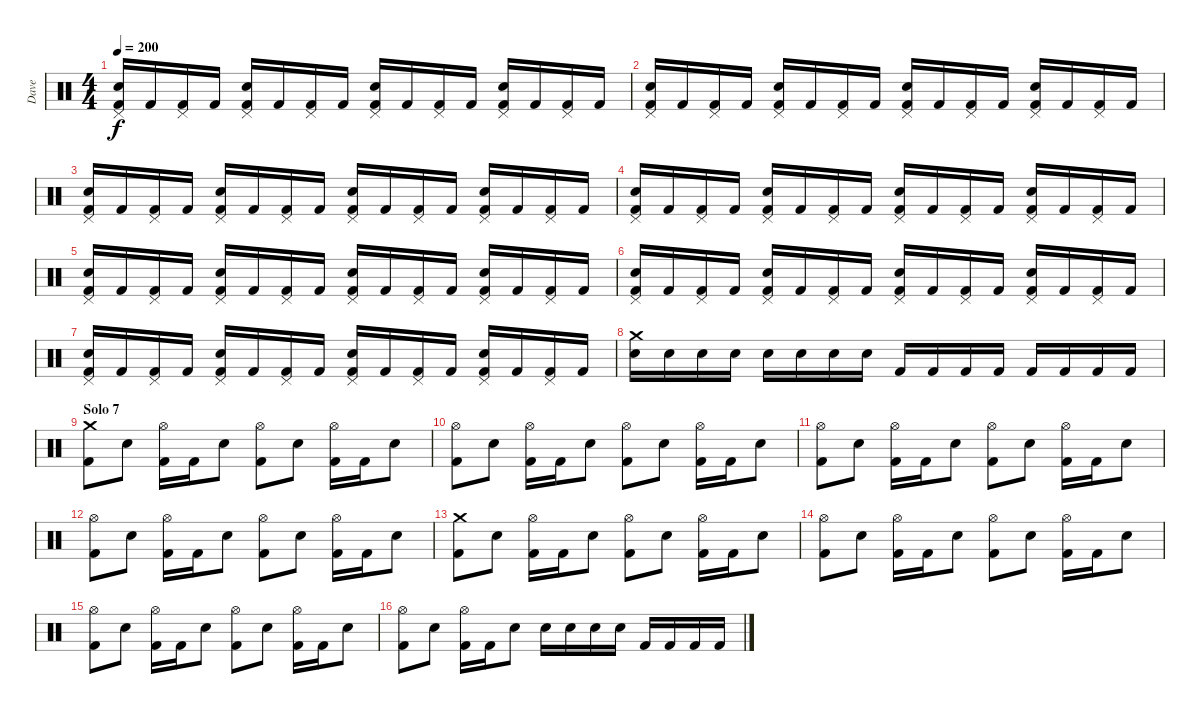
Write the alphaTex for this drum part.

\track ("Dave" "Dave") {instrument percussion}
\staff {score}
\articulation defaults
\ts (4 4)
\tempo 200
\clef neutral
\ks c
("Pedal Hi-Hat (hit)" "Snare (hit) 2" "Kick (hit) 2").16{dy f} "Kick (hit) 2".16 ("Pedal Hi-Hat (hit)" "Kick (hit) 2").16 "Kick (hit) 2".16 ("Pedal Hi-Hat (hit)" "Snare (hit) 2" "Kick (hit) 2").16 "Kick (hit) 2".16 ("Pedal Hi-Hat (hit)" "Kick (hit) 2").16 "Kick (hit) 2".16 ("Pedal Hi-Hat (hit)" "Snare (hit) 2" "Kick (hit) 2").16 "Kick (hit) 2".16 ("Pedal Hi-Hat (hit)" "Kick (hit) 2").16 "Kick (hit) 2".16 ("Pedal Hi-Hat (hit)" "Snare (hit) 2" "Kick (hit) 2").16 "Kick (hit) 2".16 ("Pedal Hi-Hat (hit)" "Kick (hit) 2").16 "Kick (hit) 2".16 |
("Pedal Hi-Hat (hit)" "Snare (hit) 2" "Kick (hit) 2").16 "Kick (hit) 2".16 ("Pedal Hi-Hat (hit)" "Kick (hit) 2").16 "Kick (hit) 2".16 ("Pedal Hi-Hat (hit)" "Snare (hit) 2" "Kick (hit) 2").16 "Kick (hit) 2".16 ("Pedal Hi-Hat (hit)" "Kick (hit) 2").16 "Kick (hit) 2".16 ("Pedal Hi-Hat (hit)" "Snare (hit) 2" "Kick (hit) 2").16 "Kick (hit) 2".16 ("Pedal Hi-Hat (hit)" "Kick (hit) 2").16 "Kick (hit) 2".16 ("Pedal Hi-Hat (hit)" "Snare (hit) 2" "Kick (hit) 2").16 "Kick (hit) 2".16 ("Pedal Hi-Hat (hit)" "Kick (hit) 2").16 "Kick (hit) 2".16 |
("Pedal Hi-Hat (hit)" "Snare (hit) 2" "Kick (hit) 2").16 "Kick (hit) 2".16 ("Pedal Hi-Hat (hit)" "Kick (hit) 2").16 "Kick (hit) 2".16 ("Pedal Hi-Hat (hit)" "Snare (hit) 2" "Kick (hit) 2").16 "Kick (hit) 2".16 ("Pedal Hi-Hat (hit)" "Kick (hit) 2").16 "Kick (hit) 2".16 ("Pedal Hi-Hat (hit)" "Snare (hit) 2" "Kick (hit) 2").16 "Kick (hit) 2".16 ("Pedal Hi-Hat (hit)" "Kick (hit) 2").16 "Kick (hit) 2".16 ("Pedal Hi-Hat (hit)" "Snare (hit) 2" "Kick (hit) 2").16 "Kick (hit) 2".16 ("Pedal Hi-Hat (hit)" "Kick (hit) 2").16 "Kick (hit) 2".16 |
("Pedal Hi-Hat (hit)" "Snare (hit) 2" "Kick (hit) 2").16 "Kick (hit) 2".16 ("Pedal Hi-Hat (hit)" "Kick (hit) 2").16 "Kick (hit) 2".16 ("Pedal Hi-Hat (hit)" "Snare (hit) 2" "Kick (hit) 2").16 "Kick (hit) 2".16 ("Pedal Hi-Hat (hit)" "Kick (hit) 2").16 "Kick (hit) 2".16 ("Pedal Hi-Hat (hit)" "Snare (hit) 2" "Kick (hit) 2").16 "Kick (hit) 2".16 ("Pedal Hi-Hat (hit)" "Kick (hit) 2").16 "Kick (hit) 2".16 ("Pedal Hi-Hat (hit)" "Snare (hit) 2" "Kick (hit) 2").16 "Kick (hit) 2".16 ("Pedal Hi-Hat (hit)" "Kick (hit) 2").16 "Kick (hit) 2".16 |
("Pedal Hi-Hat (hit)" "Snare (hit) 2" "Kick (hit) 2").16 "Kick (hit) 2".16 ("Pedal Hi-Hat (hit)" "Kick (hit) 2").16 "Kick (hit) 2".16 ("Pedal Hi-Hat (hit)" "Snare (hit) 2" "Kick (hit) 2").16 "Kick (hit) 2".16 ("Pedal Hi-Hat (hit)" "Kick (hit) 2").16 "Kick (hit) 2".16 ("Pedal Hi-Hat (hit)" "Snare (hit) 2" "Kick (hit) 2").16 "Kick (hit) 2".16 ("Pedal Hi-Hat (hit)" "Kick (hit) 2").16 "Kick (hit) 2".16 ("Pedal Hi-Hat (hit)" "Snare (hit) 2" "Kick (hit) 2").16 "Kick (hit) 2".16 ("Pedal Hi-Hat (hit)" "Kick (hit) 2").16 "Kick (hit) 2".16 |
("Pedal Hi-Hat (hit)" "Snare (hit) 2" "Kick (hit) 2").16 "Kick (hit) 2".16 ("Pedal Hi-Hat (hit)" "Kick (hit) 2").16 "Kick (hit) 2".16 ("Pedal Hi-Hat (hit)" "Snare (hit) 2" "Kick (hit) 2").16 "Kick (hit) 2".16 ("Pedal Hi-Hat (hit)" "Kick (hit) 2").16 "Kick (hit) 2".16 ("Pedal Hi-Hat (hit)" "Snare (hit) 2" "Kick (hit) 2").16 "Kick (hit) 2".16 ("Pedal Hi-Hat (hit)" "Kick (hit) 2").16 "Kick (hit) 2".16 ("Pedal Hi-Hat (hit)" "Snare (hit) 2" "Kick (hit) 2").16 "Kick (hit) 2".16 ("Pedal Hi-Hat (hit)" "Kick (hit) 2").16 "Kick (hit) 2".16 |
("Pedal Hi-Hat (hit)" "Snare (hit) 2" "Kick (hit) 2").16 "Kick (hit) 2".16 ("Pedal Hi-Hat (hit)" "Kick (hit) 2").16 "Kick (hit) 2".16 ("Pedal Hi-Hat (hit)" "Snare (hit) 2" "Kick (hit) 2").16 "Kick (hit) 2".16 ("Pedal Hi-Hat (hit)" "Kick (hit) 2").16 "Kick (hit) 2".16 ("Pedal Hi-Hat (hit)" "Snare (hit) 2" "Kick (hit) 2").16 "Kick (hit) 2".16 ("Pedal Hi-Hat (hit)" "Kick (hit) 2").16 "Kick (hit) 2".16 ("Pedal Hi-Hat (hit)" "Snare (hit) 2" "Kick (hit) 2").16 "Kick (hit) 2".16 ("Pedal Hi-Hat (hit)" "Kick (hit) 2").16 "Kick (hit) 2".16 |
("Crash medium (hit)" "Snare (hit) 2").16 "Snare (hit) 2".16 "Snare (hit) 2".16 "Snare (hit) 2".16 "Snare (hit) 2".16 "Snare (hit) 2".16 "Snare (hit) 2".16 "Snare (hit) 2".16 "Kick (hit) 2".16 "Kick (hit) 2".16 "Kick (hit) 2".16 "Kick (hit) 2".16 "Kick (hit) 2".16 "Kick (hit) 2".16 "Kick (hit) 2".16 "Kick (hit) 2".16 |
\section ("" "Solo 7")
("Crash medium (hit)" "Kick (hit) 2").8 "Snare (hit) 2".8 ("Hi-Hat (open)" "Kick (hit) 2").16 "Kick (hit) 2".16 "Snare (hit) 2".8 ("Hi-Hat (open)" "Kick (hit) 2").8 "Snare (hit) 2".8 ("Hi-Hat (open)" "Kick (hit) 2").16 "Kick (hit) 2".16 "Snare (hit) 2".8 |
("Hi-Hat (open)" "Kick (hit) 2").8 "Snare (hit) 2".8 ("Hi-Hat (open)" "Kick (hit) 2").16 "Kick (hit) 2".16 "Snare (hit) 2".8 ("Hi-Hat (open)" "Kick (hit) 2").8 "Snare (hit) 2".8 ("Hi-Hat (open)" "Kick (hit) 2").16 "Kick (hit) 2".16 "Snare (hit) 2".8 |
("Hi-Hat (open)" "Kick (hit) 2").8 "Snare (hit) 2".8 ("Hi-Hat (open)" "Kick (hit) 2").16 "Kick (hit) 2".16 "Snare (hit) 2".8 ("Hi-Hat (open)" "Kick (hit) 2").8 "Snare (hit) 2".8 ("Hi-Hat (open)" "Kick (hit) 2").16 "Kick (hit) 2".16 "Snare (hit) 2".8 |
("Hi-Hat (open)" "Kick (hit) 2").8 "Snare (hit) 2".8 ("Hi-Hat (open)" "Kick (hit) 2").16 "Kick (hit) 2".16 "Snare (hit) 2".8 ("Hi-Hat (open)" "Kick (hit) 2").8 "Snare (hit) 2".8 ("Hi-Hat (open)" "Kick (hit) 2").16 "Kick (hit) 2".16 "Snare (hit) 2".8 |
("Crash medium (hit)" "Kick (hit) 2").8 "Snare (hit) 2".8 ("Hi-Hat (open)" "Kick (hit) 2").16 "Kick (hit) 2".16 "Snare (hit) 2".8 ("Hi-Hat (open)" "Kick (hit) 2").8 "Snare (hit) 2".8 ("Hi-Hat (open)" "Kick (hit) 2").16 "Kick (hit) 2".16 "Snare (hit) 2".8 |
("Hi-Hat (open)" "Kick (hit) 2").8 "Snare (hit) 2".8 ("Hi-Hat (open)" "Kick (hit) 2").16 "Kick (hit) 2".16 "Snare (hit) 2".8 ("Hi-Hat (open)" "Kick (hit) 2").8 "Snare (hit) 2".8 ("Hi-Hat (open)" "Kick (hit) 2").16 "Kick (hit) 2".16 "Snare (hit) 2".8 |
("Hi-Hat (open)" "Kick (hit) 2").8 "Snare (hit) 2".8 ("Hi-Hat (open)" "Kick (hit) 2").16 "Kick (hit) 2".16 "Snare (hit) 2".8 ("Hi-Hat (open)" "Kick (hit) 2").8 "Snare (hit) 2".8 ("Hi-Hat (open)" "Kick (hit) 2").16 "Kick (hit) 2".16 "Snare (hit) 2".8 |
("Hi-Hat (open)" "Kick (hit) 2").8 "Snare (hit) 2".8 ("Hi-Hat (open)" "Kick (hit) 2").16 "Kick (hit) 2".16 "Snare (hit) 2".8 "Snare (hit) 2".16 "Snare (hit) 2".16 "Snare (hit) 2".16 "Snare (hit) 2".16 "Kick (hit) 2".16 "Kick (hit) 2".16 "Kick (hit) 2".16 "Kick (hit) 2".16
